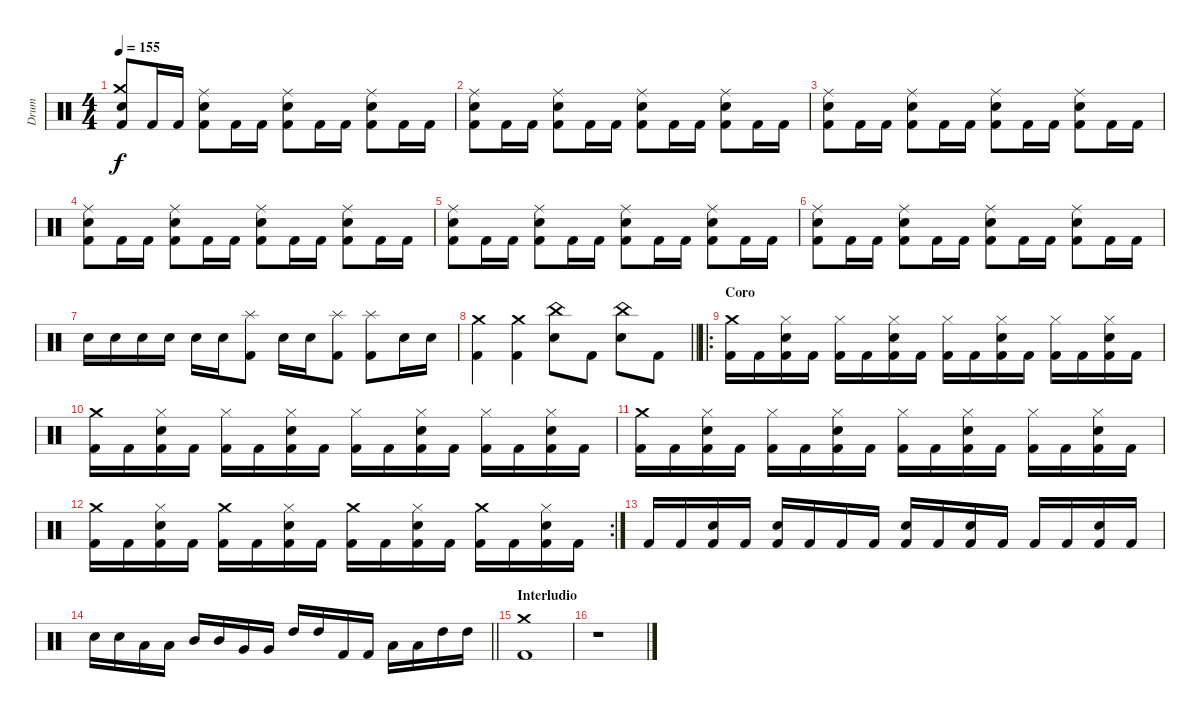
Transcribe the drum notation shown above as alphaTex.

\track ("Drum" "Drum") {instrument percussion}
\staff {score}
\articulation defaults
\ts (4 4)
\tempo 155
\clef neutral
\ks c
("Kick (hit) 2" "Crash medium (hit)" "Electric Snare (hit)").8{dy f} "Kick (hit) 2".16 "Kick (hit) 2".16 ("Kick (hit) 2" "Ride (middle)" "Electric Snare (hit)").8 "Kick (hit) 2".16 "Kick (hit) 2".16 ("Kick (hit) 2" "Ride (middle)" "Electric Snare (hit)").8 "Kick (hit) 2".16 "Kick (hit) 2".16 ("Kick (hit) 2" "Ride (middle)" "Electric Snare (hit)").8 "Kick (hit) 2".16 "Kick (hit) 2".16 |
("Kick (hit) 2" "Ride (middle)" "Electric Snare (hit)").8 "Kick (hit) 2".16 "Kick (hit) 2".16 ("Kick (hit) 2" "Ride (middle)" "Electric Snare (hit)").8 "Kick (hit) 2".16 "Kick (hit) 2".16 ("Kick (hit) 2" "Ride (middle)" "Electric Snare (hit)").8 "Kick (hit) 2".16 "Kick (hit) 2".16 ("Kick (hit) 2" "Ride (middle)" "Electric Snare (hit)").8 "Kick (hit) 2".16 "Kick (hit) 2".16 |
("Kick (hit) 2" "Ride (middle)" "Electric Snare (hit)").8 "Kick (hit) 2".16 "Kick (hit) 2".16 ("Kick (hit) 2" "Ride (middle)" "Electric Snare (hit)").8 "Kick (hit) 2".16 "Kick (hit) 2".16 ("Kick (hit) 2" "Ride (middle)" "Electric Snare (hit)").8 "Kick (hit) 2".16 "Kick (hit) 2".16 ("Kick (hit) 2" "Ride (middle)" "Electric Snare (hit)").8 "Kick (hit) 2".16 "Kick (hit) 2".16 |
("Kick (hit) 2" "Ride (middle)" "Electric Snare (hit)").8 "Kick (hit) 2".16 "Kick (hit) 2".16 ("Kick (hit) 2" "Ride (middle)" "Electric Snare (hit)").8 "Kick (hit) 2".16 "Kick (hit) 2".16 ("Kick (hit) 2" "Ride (middle)" "Electric Snare (hit)").8 "Kick (hit) 2".16 "Kick (hit) 2".16 ("Kick (hit) 2" "Ride (middle)" "Electric Snare (hit)").8 "Kick (hit) 2".16 "Kick (hit) 2".16 |
("Kick (hit) 2" "Ride (middle)" "Electric Snare (hit)").8 "Kick (hit) 2".16 "Kick (hit) 2".16 ("Kick (hit) 2" "Ride (middle)" "Electric Snare (hit)").8 "Kick (hit) 2".16 "Kick (hit) 2".16 ("Kick (hit) 2" "Ride (middle)" "Electric Snare (hit)").8 "Kick (hit) 2".16 "Kick (hit) 2".16 ("Kick (hit) 2" "Ride (middle)" "Electric Snare (hit)").8 "Kick (hit) 2".16 "Kick (hit) 2".16 |
("Kick (hit) 2" "Ride (middle)" "Electric Snare (hit)").8 "Kick (hit) 2".16 "Kick (hit) 2".16 ("Kick (hit) 2" "Ride (middle)" "Electric Snare (hit)").8 "Kick (hit) 2".16 "Kick (hit) 2".16 ("Kick (hit) 2" "Ride (middle)" "Electric Snare (hit)").8 "Kick (hit) 2".16 "Kick (hit) 2".16 ("Kick (hit) 2" "Ride (middle)" "Electric Snare (hit)").8 "Kick (hit) 2".16 "Kick (hit) 2".16 |
"Electric Snare (hit)".16 "Electric Snare (hit)".16 "Electric Snare (hit)".16 "Electric Snare (hit)".16 "Electric Snare (hit)".16 "Electric Snare (hit)".16 ("Kick (hit) 2" "Splash (hit)").8 "Electric Snare (hit)".16 "Electric Snare (hit)".16 ("Kick (hit) 2" "Splash (hit)").8 ("Kick (hit) 2" "Splash (hit)").8 "Electric Snare (hit)".16 "Electric Snare (hit)".16 |
\barLineRight lightlight
("Kick (hit) 2" "Crash medium (hit)").4 ("Kick (hit) 2" "Crash medium (hit)").4 ("China (hit)" "Electric Snare (hit)").8 "Kick (hit) 2".8 ("China (hit)" "Electric Snare (hit)").8 "Kick (hit) 2".8 |
\ro
\section ("" "Coro")
("Kick (hit) 2" "Crash medium (hit)").16 "Kick (hit) 2".16 ("Kick (hit) 2" "Hi-Hat (closed)" "Electric Snare (hit)").16 "Kick (hit) 2".16 ("Kick (hit) 2" "Hi-Hat (closed)").16 "Kick (hit) 2".16 ("Kick (hit) 2" "Hi-Hat (closed)" "Electric Snare (hit)").16 "Kick (hit) 2".16 ("Kick (hit) 2" "Hi-Hat (closed)").16 "Kick (hit) 2".16 ("Kick (hit) 2" "Hi-Hat (closed)" "Electric Snare (hit)").16 "Kick (hit) 2".16 ("Kick (hit) 2" "Hi-Hat (closed)").16 "Kick (hit) 2".16 ("Kick (hit) 2" "Hi-Hat (closed)" "Electric Snare (hit)").16 "Kick (hit) 2".16 |
("Kick (hit) 2" "Crash medium (hit)").16 "Kick (hit) 2".16 ("Kick (hit) 2" "Hi-Hat (closed)" "Electric Snare (hit)").16 "Kick (hit) 2".16 ("Kick (hit) 2" "Hi-Hat (closed)").16 "Kick (hit) 2".16 ("Kick (hit) 2" "Hi-Hat (closed)" "Electric Snare (hit)").16 "Kick (hit) 2".16 ("Kick (hit) 2" "Hi-Hat (closed)").16 "Kick (hit) 2".16 ("Kick (hit) 2" "Hi-Hat (closed)" "Electric Snare (hit)").16 "Kick (hit) 2".16 ("Kick (hit) 2" "Hi-Hat (closed)").16 "Kick (hit) 2".16 ("Kick (hit) 2" "Hi-Hat (closed)" "Electric Snare (hit)").16 "Kick (hit) 2".16 |
("Kick (hit) 2" "Crash medium (hit)").16 "Kick (hit) 2".16 ("Kick (hit) 2" "Hi-Hat (closed)" "Electric Snare (hit)").16 "Kick (hit) 2".16 ("Kick (hit) 2" "Hi-Hat (closed)").16 "Kick (hit) 2".16 ("Kick (hit) 2" "Hi-Hat (closed)" "Electric Snare (hit)").16 "Kick (hit) 2".16 ("Kick (hit) 2" "Hi-Hat (closed)").16 "Kick (hit) 2".16 ("Kick (hit) 2" "Hi-Hat (closed)" "Electric Snare (hit)").16 "Kick (hit) 2".16 ("Kick (hit) 2" "Hi-Hat (closed)").16 "Kick (hit) 2".16 ("Kick (hit) 2" "Hi-Hat (closed)" "Electric Snare (hit)").16 "Kick (hit) 2".16 |
\rc 2
("Kick (hit) 2" "Crash medium (hit)").16 "Kick (hit) 2".16 ("Kick (hit) 2" "Hi-Hat (closed)" "Electric Snare (hit)").16 "Kick (hit) 2".16 ("Kick (hit) 2" "Crash medium (hit)").16 "Kick (hit) 2".16 ("Kick (hit) 2" "Hi-Hat (closed)" "Electric Snare (hit)").16 "Kick (hit) 2".16 ("Kick (hit) 2" "Crash medium (hit)").16 "Kick (hit) 2".16 ("Kick (hit) 2" "Hi-Hat (closed)" "Electric Snare (hit)").16 "Kick (hit) 2".16 ("Kick (hit) 2" "Crash medium (hit)").16 "Kick (hit) 2".16 ("Kick (hit) 2" "Hi-Hat (closed)" "Electric Snare (hit)").16 "Kick (hit) 2".16 |
"Kick (hit) 2".16 "Kick (hit) 2".16 ("Kick (hit) 2" "Electric Snare (hit)").16 "Kick (hit) 2".16 ("Kick (hit) 2" "Electric Snare (hit)").16 "Kick (hit) 2".16 "Kick (hit) 2".16 "Kick (hit) 2".16 ("Kick (hit) 2" "Electric Snare (hit)").16 "Kick (hit) 2".16 ("Kick (hit) 2" "Electric Snare (hit)").16 "Kick (hit) 2".16 "Kick (hit) 2".16 "Kick (hit) 2".16 ("Kick (hit) 2" "Electric Snare (hit)").16 "Kick (hit) 2".16 |
\barLineRight lightlight "Electric Snare (hit)".16 "Electric Snare (hit)".16 "Low Tom (hit)".16 "Low Tom (hit)".16 "Mid Tom (hit)".16 "Mid Tom (hit)".16 "Very Low Tom (hit)".16 "Very Low Tom (hit)".16 "High Tom (hit)".16 "High Tom (hit)".16 "Kick (hit) 2".16 "Kick (hit) 2".16 "Low Floor Tom (hit)".16 "Low Floor Tom (hit)".16 "High Tom (hit)".16 "High Tom (hit)".16
|
\section ("" "Interludio")
("Kick (hit) 2" "Crash medium (hit)").1 |
r.1
